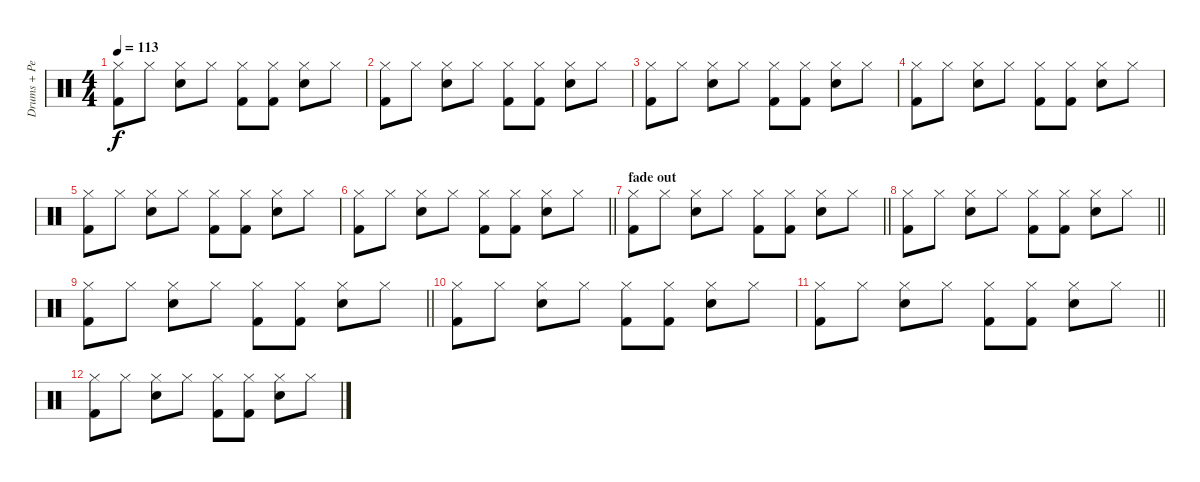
\track ("Drums + Percussion" "Drums + Pe") {instrument percussion}
\staff {score}
\articulation defaults
\ts (4 4)
\tempo 113
\clef neutral
\ks c
("Hi-Hat (closed)" "Kick (hit) 2").8{dy f} "Hi-Hat (closed)".8 ("Hi-Hat (closed)" "Snare (hit) 2").8 "Hi-Hat (closed)".8 ("Hi-Hat (closed)" "Kick (hit) 2").8 ("Hi-Hat (closed)" "Kick (hit) 2").8 ("Hi-Hat (closed)" "Snare (hit) 2").8 "Hi-Hat (closed)".8 |
("Hi-Hat (closed)" "Kick (hit) 2").8 "Hi-Hat (closed)".8 ("Hi-Hat (closed)" "Snare (hit) 2").8 "Hi-Hat (closed)".8 ("Hi-Hat (closed)" "Kick (hit) 2").8 ("Hi-Hat (closed)" "Kick (hit) 2").8 ("Hi-Hat (closed)" "Snare (hit) 2").8 "Hi-Hat (closed)".8 |
("Hi-Hat (closed)" "Kick (hit) 2").8 "Hi-Hat (closed)".8 ("Hi-Hat (closed)" "Snare (hit) 2").8 "Hi-Hat (closed)".8 ("Hi-Hat (closed)" "Kick (hit) 2").8 ("Hi-Hat (closed)" "Kick (hit) 2").8 ("Hi-Hat (closed)" "Snare (hit) 2").8 "Hi-Hat (closed)".8 |
("Hi-Hat (closed)" "Kick (hit) 2").8 "Hi-Hat (closed)".8 ("Hi-Hat (closed)" "Snare (hit) 2").8 "Hi-Hat (closed)".8 ("Hi-Hat (closed)" "Kick (hit) 2").8 ("Hi-Hat (closed)" "Kick (hit) 2").8 ("Hi-Hat (closed)" "Snare (hit) 2").8 "Hi-Hat (closed)".8 |
("Hi-Hat (closed)" "Kick (hit) 2").8 "Hi-Hat (closed)".8 ("Hi-Hat (closed)" "Snare (hit) 2").8 "Hi-Hat (closed)".8 ("Hi-Hat (closed)" "Kick (hit) 2").8 ("Hi-Hat (closed)" "Kick (hit) 2").8 ("Hi-Hat (closed)" "Snare (hit) 2").8 "Hi-Hat (closed)".8 |
\barLineRight lightlight
("Hi-Hat (closed)" "Kick (hit) 2").8 "Hi-Hat (closed)".8 ("Hi-Hat (closed)" "Snare (hit) 2").8 "Hi-Hat (closed)".8 ("Hi-Hat (closed)" "Kick (hit) 2").8 ("Hi-Hat (closed)" "Kick (hit) 2").8 ("Hi-Hat (closed)" "Snare (hit) 2").8 "Hi-Hat (closed)".8 |
\section ("" "fade out")
\barLineRight lightlight
("Hi-Hat (closed)" "Kick (hit) 2").8 "Hi-Hat (closed)".8 ("Hi-Hat (closed)" "Snare (hit) 2").8 "Hi-Hat (closed)".8 ("Hi-Hat (closed)" "Kick (hit) 2").8 ("Hi-Hat (closed)" "Kick (hit) 2").8 ("Hi-Hat (closed)" "Snare (hit) 2").8 "Hi-Hat (closed)".8 |
\barLineRight lightlight
("Hi-Hat (closed)" "Kick (hit) 2").8 "Hi-Hat (closed)".8 ("Hi-Hat (closed)" "Snare (hit) 2").8 "Hi-Hat (closed)".8 ("Hi-Hat (closed)" "Kick (hit) 2").8 ("Hi-Hat (closed)" "Kick (hit) 2").8 ("Hi-Hat (closed)" "Snare (hit) 2").8 "Hi-Hat (closed)".8 |
\barLineRight lightlight
("Hi-Hat (closed)" "Kick (hit) 2").8 "Hi-Hat (closed)".8 ("Hi-Hat (closed)" "Snare (hit) 2").8 "Hi-Hat (closed)".8 ("Hi-Hat (closed)" "Kick (hit) 2").8 ("Hi-Hat (closed)" "Kick (hit) 2").8 ("Hi-Hat (closed)" "Snare (hit) 2").8 "Hi-Hat (closed)".8 |
("Hi-Hat (closed)" "Kick (hit) 2").8 "Hi-Hat (closed)".8 ("Hi-Hat (closed)" "Snare (hit) 2").8 "Hi-Hat (closed)".8 ("Hi-Hat (closed)" "Kick (hit) 2").8 ("Hi-Hat (closed)" "Kick (hit) 2").8 ("Hi-Hat (closed)" "Snare (hit) 2").8 "Hi-Hat (closed)".8 |
\barLineRight lightlight
("Hi-Hat (closed)" "Kick (hit) 2").8 "Hi-Hat (closed)".8 ("Hi-Hat (closed)" "Snare (hit) 2").8 "Hi-Hat (closed)".8 ("Hi-Hat (closed)" "Kick (hit) 2").8 ("Hi-Hat (closed)" "Kick (hit) 2").8 ("Hi-Hat (closed)" "Snare (hit) 2").8 "Hi-Hat (closed)".8 |
("Hi-Hat (closed)" "Kick (hit) 2").8 "Hi-Hat (closed)".8 ("Hi-Hat (closed)" "Snare (hit) 2").8 "Hi-Hat (closed)".8 ("Hi-Hat (closed)" "Kick (hit) 2").8 ("Hi-Hat (closed)" "Kick (hit) 2").8 ("Hi-Hat (closed)" "Snare (hit) 2").8 "Hi-Hat (closed)".8
